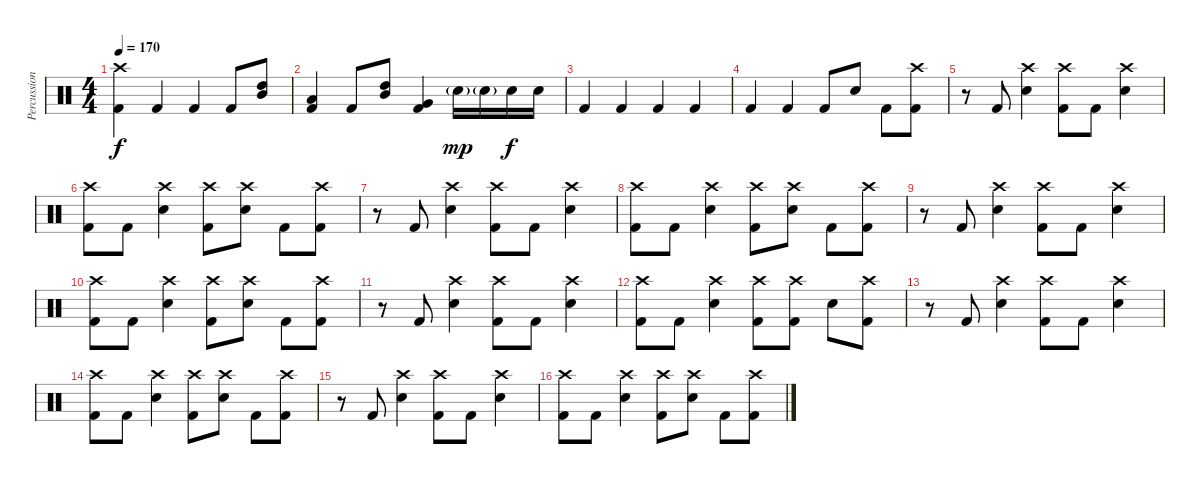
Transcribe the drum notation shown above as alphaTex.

\track ("Percussion" "Percussion") {instrument percussion}
\staff {score}
\articulation defaults
\ts (4 4)
\tempo 170
\clef neutral
\ks c
("Crash high (hit)" "Kick (hit) 2").4{dy f} "Kick (hit) 2".4 "Kick (hit) 2".4 "Kick (hit) 2".8 ("High Tom (hit)" "Mid Tom (hit)").8 |
("Low Tom (hit)" "Kick (hit) 2").4 "Kick (hit) 2".8 ("High Tom (hit)" "Mid Tom (hit)").8 ("Very Low Tom (hit)" "Kick (hit) 2").4 "Snare (hit) 2"{g}.16{dy mp} "Snare (hit) 2"{g}.16 "Snare (hit) 2".16{dy f} "Snare (hit) 2".16 |
"Kick (hit) 2".4 "Kick (hit) 2".4 "Kick (hit) 2".4 "Kick (hit) 2".4 |
"Kick (hit) 2".4 "Kick (hit) 2".4 "Kick (hit) 2".8 "Snare (hit) 2".8 "Kick (hit) 2".8 ("Crash high (hit)" "Kick (hit) 2").8 |
r.8 "Kick (hit) 2".8 ("Crash high (hit)" "Snare (hit) 2").4 ("Crash high (hit)" "Kick (hit) 2").8 "Kick (hit) 2".8 ("Crash high (hit)" "Snare (hit) 2").4 |
("Crash high (hit)" "Kick (hit) 2").8 "Kick (hit) 2".8 ("Crash high (hit)" "Snare (hit) 2").4 ("Crash high (hit)" "Kick (hit) 2").8 ("Crash high (hit)" "Snare (hit) 2").8 "Kick (hit) 2".8 ("Crash high (hit)" "Kick (hit) 2").8 |
r.8 "Kick (hit) 2".8 ("Crash high (hit)" "Snare (hit) 2").4 ("Crash high (hit)" "Kick (hit) 2").8 "Kick (hit) 2".8 ("Crash high (hit)" "Snare (hit) 2").4 |
("Crash high (hit)" "Kick (hit) 2").8 "Kick (hit) 2".8 ("Crash high (hit)" "Snare (hit) 2").4 ("Crash high (hit)" "Kick (hit) 2").8 ("Crash high (hit)" "Snare (hit) 2").8 "Kick (hit) 2".8 ("Crash high (hit)" "Kick (hit) 2").8 |
r.8 "Kick (hit) 2".8 ("Crash high (hit)" "Snare (hit) 2").4 ("Crash high (hit)" "Kick (hit) 2").8 "Kick (hit) 2".8 ("Crash high (hit)" "Snare (hit) 2").4 |
("Crash high (hit)" "Kick (hit) 2").8 "Kick (hit) 2".8 ("Crash high (hit)" "Snare (hit) 2").4 ("Crash high (hit)" "Kick (hit) 2").8 ("Crash high (hit)" "Snare (hit) 2").8 "Kick (hit) 2".8 ("Crash high (hit)" "Kick (hit) 2").8 |
r.8 "Kick (hit) 2".8 ("Crash high (hit)" "Snare (hit) 2").4 ("Crash high (hit)" "Kick (hit) 2").8 "Kick (hit) 2".8 ("Crash high (hit)" "Snare (hit) 2").4 |
("Crash high (hit)" "Kick (hit) 2").8 "Kick (hit) 2".8 ("Crash high (hit)" "Snare (hit) 2").4 ("Crash high (hit)" "Kick (hit) 2").8 ("Crash high (hit)" "Kick (hit) 2").8 "Snare (hit) 2".8 ("Crash high (hit)" "Kick (hit) 2").8 |
r.8 "Kick (hit) 2".8 ("Crash high (hit)" "Snare (hit) 2").4 ("Crash high (hit)" "Kick (hit) 2").8 "Kick (hit) 2".8 ("Crash high (hit)" "Snare (hit) 2").4 |
("Crash high (hit)" "Kick (hit) 2").8 "Kick (hit) 2".8 ("Crash high (hit)" "Snare (hit) 2").4 ("Crash high (hit)" "Kick (hit) 2").8 ("Crash high (hit)" "Snare (hit) 2").8 "Kick (hit) 2".8 ("Crash high (hit)" "Kick (hit) 2").8 |
r.8 "Kick (hit) 2".8 ("Crash high (hit)" "Snare (hit) 2").4 ("Crash high (hit)" "Kick (hit) 2").8 "Kick (hit) 2".8 ("Crash high (hit)" "Snare (hit) 2").4 |
("Crash high (hit)" "Kick (hit) 2").8 "Kick (hit) 2".8 ("Crash high (hit)" "Snare (hit) 2").4 ("Crash high (hit)" "Kick (hit) 2").8 ("Crash high (hit)" "Snare (hit) 2").8 "Kick (hit) 2".8 ("Crash high (hit)" "Kick (hit) 2").8
